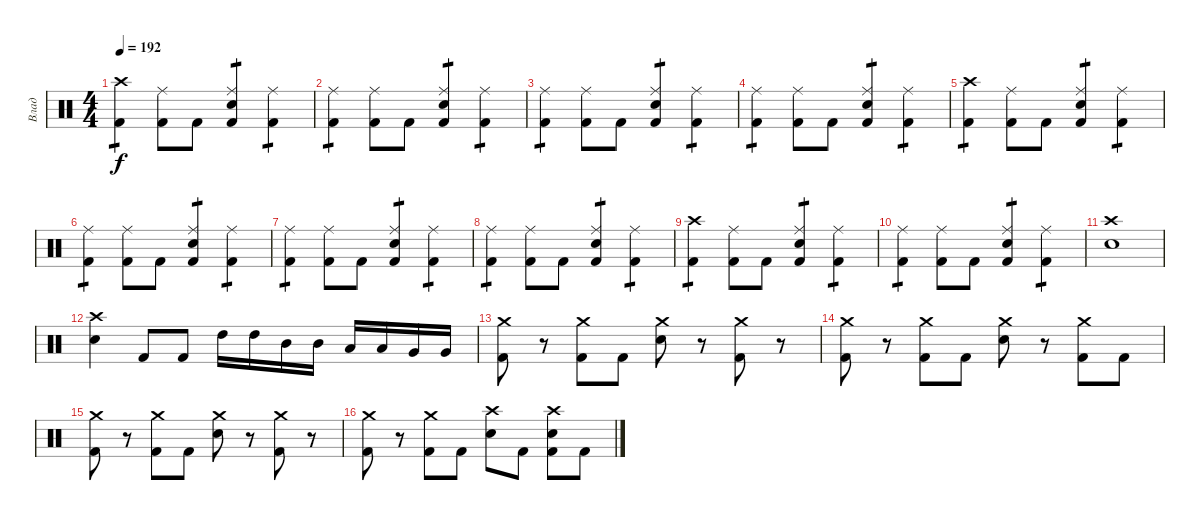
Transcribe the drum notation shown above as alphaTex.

\track ("Влад" "Влад") {instrument percussion}
\staff {score}
\articulation defaults
\ts (4 4)
\tempo 192
\clef neutral
\ks c
("Crash high (hit)" "Kick (hit) 2").4{tp 1 dy f} ("Ride (middle)" "Kick (hit) 2").8 "Kick (hit) 2".8 ("Ride (middle)" "Kick (hit) 2" "Snare (hit) 2").4{tp 1} ("Ride (middle)" "Kick (hit) 2").4{tp 1} |
("Ride (middle)" "Kick (hit) 2").4{tp 1} ("Ride (middle)" "Kick (hit) 2").8 "Kick (hit) 2".8 ("Ride (middle)" "Kick (hit) 2" "Snare (hit) 2").4{tp 1} ("Ride (middle)" "Kick (hit) 2").4{tp 1} |
("Ride (middle)" "Kick (hit) 2").4{tp 1} ("Ride (middle)" "Kick (hit) 2").8 "Kick (hit) 2".8 ("Ride (middle)" "Kick (hit) 2" "Snare (hit) 2").4{tp 1} ("Ride (middle)" "Kick (hit) 2").4{tp 1} |
("Ride (middle)" "Kick (hit) 2").4{tp 1} ("Ride (middle)" "Kick (hit) 2").8 "Kick (hit) 2".8 ("Ride (middle)" "Kick (hit) 2" "Snare (hit) 2").4{tp 1} ("Ride (middle)" "Kick (hit) 2").4{tp 1} |
("Crash high (hit)" "Kick (hit) 2").4{tp 1} ("Ride (middle)" "Kick (hit) 2").8 "Kick (hit) 2".8 ("Ride (middle)" "Kick (hit) 2" "Snare (hit) 2").4{tp 1} ("Ride (middle)" "Kick (hit) 2").4{tp 1} |
("Ride (middle)" "Kick (hit) 2").4{tp 1} ("Ride (middle)" "Kick (hit) 2").8 "Kick (hit) 2".8 ("Ride (middle)" "Kick (hit) 2" "Snare (hit) 2").4{tp 1} ("Ride (middle)" "Kick (hit) 2").4{tp 1} |
("Ride (middle)" "Kick (hit) 2").4{tp 1} ("Ride (middle)" "Kick (hit) 2").8 "Kick (hit) 2".8 ("Ride (middle)" "Kick (hit) 2" "Snare (hit) 2").4{tp 1} ("Ride (middle)" "Kick (hit) 2").4{tp 1} |
("Ride (middle)" "Kick (hit) 2").4{tp 1} ("Ride (middle)" "Kick (hit) 2").8 "Kick (hit) 2".8 ("Ride (middle)" "Kick (hit) 2" "Snare (hit) 2").4{tp 1} ("Ride (middle)" "Kick (hit) 2").4{tp 1} |
("Crash high (hit)" "Kick (hit) 2").4{tp 1} ("Ride (middle)" "Kick (hit) 2").8 "Kick (hit) 2".8 ("Ride (middle)" "Kick (hit) 2" "Snare (hit) 2").4{tp 1} ("Ride (middle)" "Kick (hit) 2").4{tp 1} |
("Ride (middle)" "Kick (hit) 2").4{tp 1} ("Ride (middle)" "Kick (hit) 2").8 "Kick (hit) 2".8 ("Ride (middle)" "Kick (hit) 2" "Snare (hit) 2").4{tp 1} ("Ride (middle)" "Kick (hit) 2").4{tp 1} |
("Crash high (hit)" "Snare (hit) 2").1 |
("Crash high (hit)" "Snare (hit) 2").4 "Kick (hit) 2".8 "Kick (hit) 2".8 "High Tom (hit)".16 "High Tom (hit)".16 "Mid Tom (hit)".16 "Mid Tom (hit)".16 "Low Tom (hit)".16 "Low Tom (hit)".16 "Very Low Tom (hit)".16 "Very Low Tom (hit)".16 |
("Crash medium (hit)" "Kick (hit) 2").8 r.8 ("Crash medium (hit)" "Kick (hit) 2").8 "Kick (hit) 2".8 ("Crash medium (hit)" "Snare (hit) 2").8 r.8 ("Crash medium (hit)" "Kick (hit) 2").8 r.8 |
("Crash medium (hit)" "Kick (hit) 2").8 r.8 ("Crash medium (hit)" "Kick (hit) 2").8 "Kick (hit) 2".8 ("Crash medium (hit)" "Snare (hit) 2").8 r.8 ("Crash medium (hit)" "Kick (hit) 2").8 "Kick (hit) 2".8 |
("Crash medium (hit)" "Kick (hit) 2").8 r.8 ("Crash medium (hit)" "Kick (hit) 2").8 "Kick (hit) 2".8 ("Crash medium (hit)" "Snare (hit) 2").8 r.8 ("Crash medium (hit)" "Kick (hit) 2").8 r.8 |
("Crash medium (hit)" "Kick (hit) 2").8 r.8 ("Crash medium (hit)" "Kick (hit) 2").8 "Kick (hit) 2".8 ("Crash high (hit)" "Snare (hit) 2").8 "Kick (hit) 2".8 ("Crash high (hit)" "Kick (hit) 2" "Snare (hit) 2").8 "Kick (hit) 2".8
